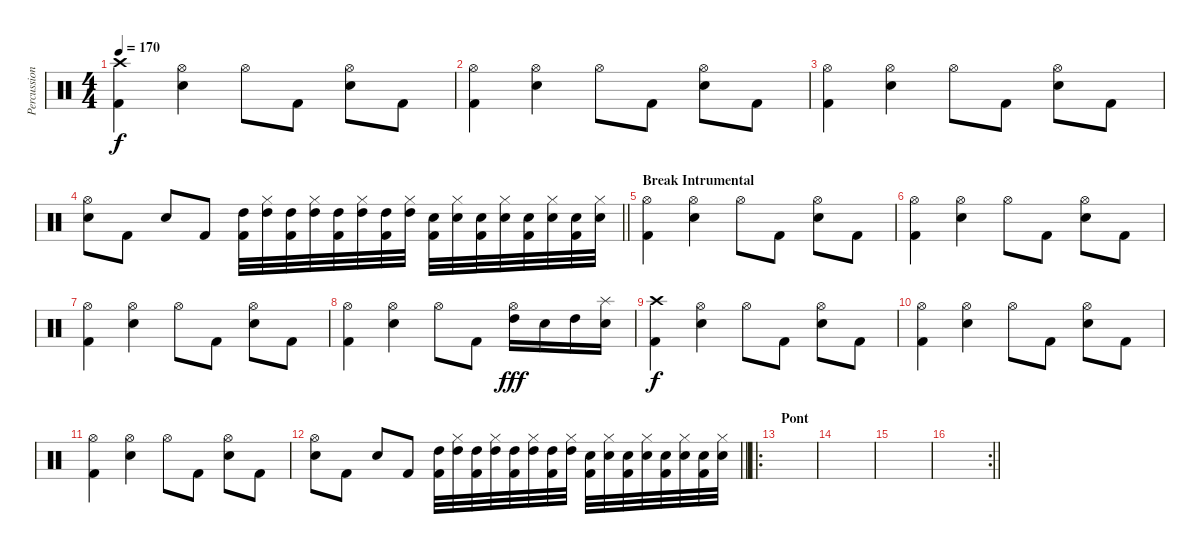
\track ("Percussions" "Percussion") {instrument percussion}
\staff {score}
\articulation defaults
\ts (4 4)
\tempo 170
\clef neutral
\ks c
("Crash high (hit)" "Kick (hit) 2").4{dy f} ("Hi-Hat (open)" "Snare (hit) 2").4 "Hi-Hat (open)".8 "Kick (hit) 2".8 ("Hi-Hat (open)" "Snare (hit) 2").8 "Kick (hit) 2".8 |
("Hi-Hat (open)" "Kick (hit) 2").4 ("Hi-Hat (open)" "Snare (hit) 2").4 "Hi-Hat (open)".8 "Kick (hit) 2".8 ("Hi-Hat (open)" "Snare (hit) 2").8 "Kick (hit) 2".8 |
("Hi-Hat (open)" "Kick (hit) 2").4 ("Hi-Hat (open)" "Snare (hit) 2").4 "Hi-Hat (open)".8 "Kick (hit) 2".8 ("Hi-Hat (open)" "Snare (hit) 2").8 "Kick (hit) 2".8 |
\barLineRight lightlight
("Hi-Hat (open)" "Snare (hit) 2").8 "Kick (hit) 2".8 "Snare (hit) 2".8 "Kick (hit) 2".8 ("High Tom (hit)" "Kick (hit) 2").32 ("Hi-Hat (closed)" "High Tom (hit)").32 ("High Tom (hit)" "Kick (hit) 2").32 ("Hi-Hat (closed)" "High Tom (hit)").32 ("High Tom (hit)" "Kick (hit) 2").32 ("Hi-Hat (closed)" "High Tom (hit)").32 ("High Tom (hit)" "Kick (hit) 2").32 ("Hi-Hat (closed)" "High Tom (hit)").32 ("Snare (hit) 2" "Kick (hit) 2").32 ("Hi-Hat (closed)" "Snare (hit) 2").32 ("Snare (hit) 2" "Kick (hit) 2").32 ("Hi-Hat (closed)" "Snare (hit) 2").32 ("Snare (hit) 2" "Kick (hit) 2").32 ("Hi-Hat (closed)" "Snare (hit) 2").32 ("Snare (hit) 2" "Kick (hit) 2").32 ("Hi-Hat (closed)" "Snare (hit) 2").32 |
\section ("" "Break Intrumental")
("Hi-Hat (open)" "Kick (hit) 2").4 ("Hi-Hat (open)" "Snare (hit) 2").4 "Hi-Hat (open)".8 "Kick (hit) 2".8 ("Hi-Hat (open)" "Snare (hit) 2").8 "Kick (hit) 2".8 |
("Hi-Hat (open)" "Kick (hit) 2").4 ("Hi-Hat (open)" "Snare (hit) 2").4 "Hi-Hat (open)".8 "Kick (hit) 2".8 ("Hi-Hat (open)" "Snare (hit) 2").8 "Kick (hit) 2".8 |
("Hi-Hat (open)" "Kick (hit) 2").4 ("Hi-Hat (open)" "Snare (hit) 2").4 "Hi-Hat (open)".8 "Kick (hit) 2".8 ("Hi-Hat (open)" "Snare (hit) 2").8 "Kick (hit) 2".8 |
("Hi-Hat (open)" "Kick (hit) 2").4 ("Hi-Hat (open)" "Snare (hit) 2").4 "Hi-Hat (open)".8 "Kick (hit) 2".8 ("Hi-Hat (open)" "High Tom (hit)").16{dy fff} "Snare (hit) 2".16 "High Tom (hit)".16 ("Splash (hit)" "Snare (hit) 2").16 |
("Crash high (hit)" "Kick (hit) 2").4{dy f} ("Hi-Hat (open)" "Snare (hit) 2").4 "Hi-Hat (open)".8 "Kick (hit) 2".8 ("Hi-Hat (open)" "Snare (hit) 2").8 "Kick (hit) 2".8 |
("Hi-Hat (open)" "Kick (hit) 2").4 ("Hi-Hat (open)" "Snare (hit) 2").4 "Hi-Hat (open)".8 "Kick (hit) 2".8 ("Hi-Hat (open)" "Snare (hit) 2").8 "Kick (hit) 2".8 |
("Hi-Hat (open)" "Kick (hit) 2").4 ("Hi-Hat (open)" "Snare (hit) 2").4 "Hi-Hat (open)".8 "Kick (hit) 2".8 ("Hi-Hat (open)" "Snare (hit) 2").8 "Kick (hit) 2".8 |
\barLineRight lightlight
("Hi-Hat (open)" "Snare (hit) 2").8 "Kick (hit) 2".8 "Snare (hit) 2".8 "Kick (hit) 2".8 ("High Tom (hit)" "Kick (hit) 2").32 ("Hi-Hat (closed)" "High Tom (hit)").32 ("High Tom (hit)" "Kick (hit) 2").32 ("Hi-Hat (closed)" "High Tom (hit)").32 ("High Tom (hit)" "Kick (hit) 2").32 ("Hi-Hat (closed)" "High Tom (hit)").32 ("High Tom (hit)" "Kick (hit) 2").32 ("Hi-Hat (closed)" "High Tom (hit)").32 ("Snare (hit) 2" "Kick (hit) 2").32 ("Hi-Hat (closed)" "Snare (hit) 2").32 ("Snare (hit) 2" "Kick (hit) 2").32 ("Hi-Hat (closed)" "Snare (hit) 2").32 ("Snare (hit) 2" "Kick (hit) 2").32 ("Hi-Hat (closed)" "Snare (hit) 2").32 ("Snare (hit) 2" "Kick (hit) 2").32 ("Hi-Hat (closed)" "Snare (hit) 2").32 |
\ro
\section ("" "Pont")
|
|
|
\rc 2
\barLineRight lightlight
